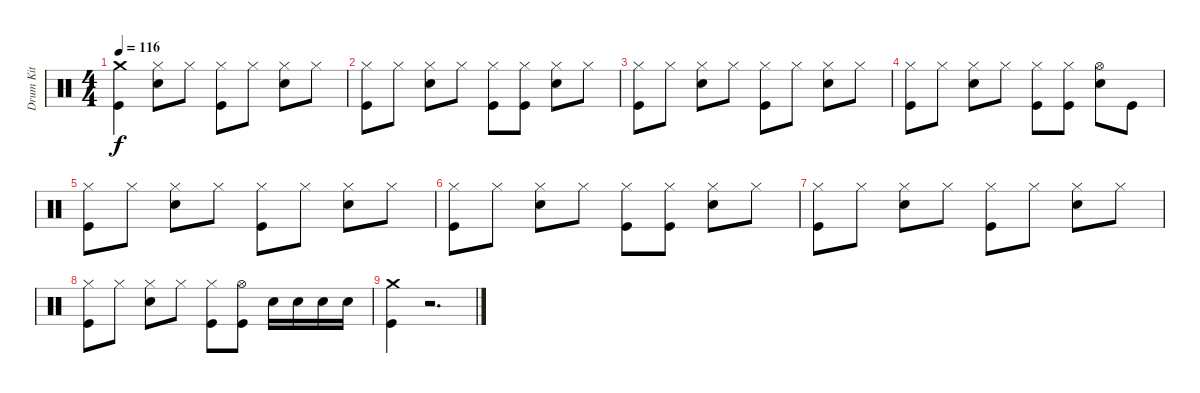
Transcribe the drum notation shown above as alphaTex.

\track ("Drum Kit" "Drum Kit") {instrument percussion}
\staff {score}
\articulation defaults
\ts (4 4)
\tempo 116
\clef neutral
\ks c
("Crash medium (hit)" "Kick (hit)").4{dy f} ("Hi-Hat (closed)" "Snare (hit) 2").8 "Hi-Hat (closed)".8 ("Hi-Hat (closed)" "Kick (hit)").8 "Hi-Hat (closed)".8 ("Hi-Hat (closed)" "Snare (hit) 2").8 "Hi-Hat (closed)".8 |
("Hi-Hat (closed)" "Kick (hit)").8 "Hi-Hat (closed)".8 ("Hi-Hat (closed)" "Snare (hit) 2").8 "Hi-Hat (closed)".8 ("Hi-Hat (closed)" "Kick (hit)").8 ("Hi-Hat (closed)" "Kick (hit)").8 ("Hi-Hat (closed)" "Snare (hit) 2").8 "Hi-Hat (closed)".8 |
("Hi-Hat (closed)" "Kick (hit)").8 "Hi-Hat (closed)".8 ("Hi-Hat (closed)" "Snare (hit) 2").8 "Hi-Hat (closed)".8 ("Hi-Hat (closed)" "Kick (hit)").8 "Hi-Hat (closed)".8 ("Hi-Hat (closed)" "Snare (hit) 2").8 "Hi-Hat (closed)".8 |
("Hi-Hat (closed)" "Kick (hit)").8 "Hi-Hat (closed)".8 ("Hi-Hat (closed)" "Snare (hit) 2").8 "Hi-Hat (closed)".8 ("Hi-Hat (closed)" "Kick (hit)").8 ("Hi-Hat (closed)" "Kick (hit)").8 ("Hi-Hat (open)" "Snare (hit) 2").8 "Kick (hit)".8 |
("Hi-Hat (closed)" "Kick (hit)").8 "Hi-Hat (closed)".8 ("Hi-Hat (closed)" "Snare (hit) 2").8 "Hi-Hat (closed)".8 ("Hi-Hat (closed)" "Kick (hit)").8 "Hi-Hat (closed)".8 ("Hi-Hat (closed)" "Snare (hit) 2").8 "Hi-Hat (closed)".8 |
("Hi-Hat (closed)" "Kick (hit)").8 "Hi-Hat (closed)".8 ("Hi-Hat (closed)" "Snare (hit) 2").8 "Hi-Hat (closed)".8 ("Hi-Hat (closed)" "Kick (hit)").8 ("Hi-Hat (closed)" "Kick (hit)").8 ("Hi-Hat (closed)" "Snare (hit) 2").8 "Hi-Hat (closed)".8 |
("Hi-Hat (closed)" "Kick (hit)").8 "Hi-Hat (closed)".8 ("Hi-Hat (closed)" "Snare (hit) 2").8 "Hi-Hat (closed)".8 ("Hi-Hat (closed)" "Kick (hit)").8 "Hi-Hat (closed)".8 ("Hi-Hat (closed)" "Snare (hit) 2").8 "Hi-Hat (closed)".8 |
("Hi-Hat (closed)" "Kick (hit)").8 "Hi-Hat (closed)".8 ("Hi-Hat (closed)" "Snare (hit) 2").8 "Hi-Hat (closed)".8 ("Hi-Hat (closed)" "Kick (hit)").8 ("Hi-Hat (open)" "Kick (hit)").8 "Snare (hit) 2".16 "Snare (hit) 2".16 "Snare (hit) 2".16 "Snare (hit) 2".16 |
("Crash medium (hit)" "Kick (hit)").4 r.2{d}
